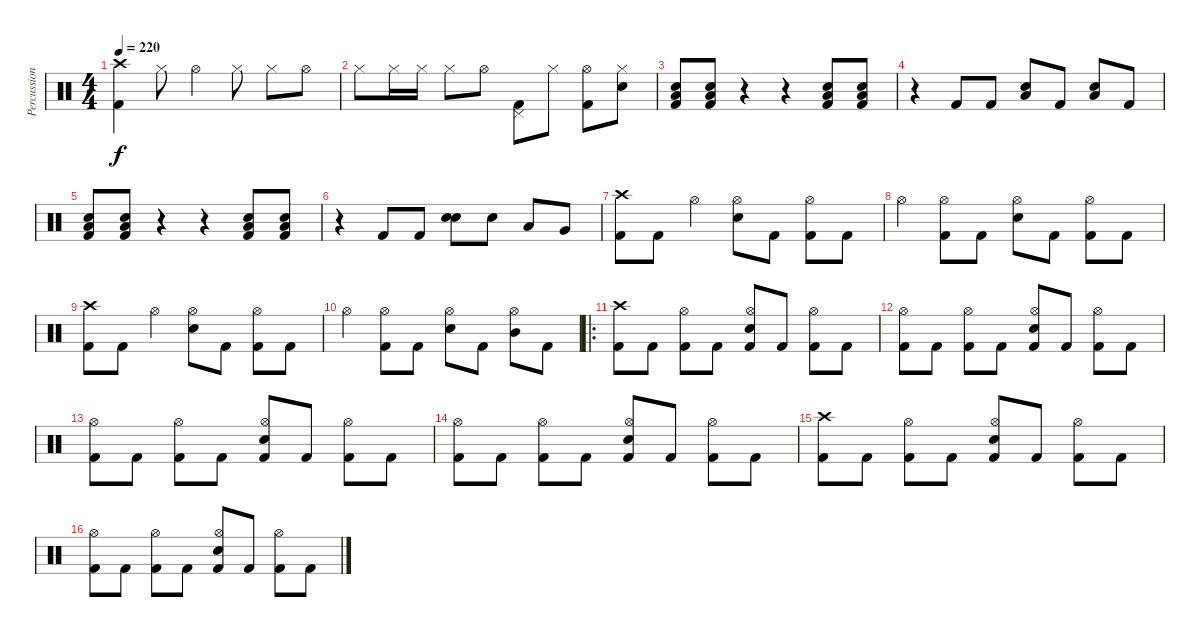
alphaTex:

\track ("Percussions" "Percussion") {instrument percussion}
\staff {score}
\articulation defaults
\ts (4 4)
\tempo 220
\clef neutral
\ks c
("Crash high (hit)" "Kick (hit) 2").4{dy f} "Hi-Hat (closed)".8 "Hi-Hat (open)".4 "Hi-Hat (closed)".8 "Hi-Hat (closed)".8 "Hi-Hat (open)".8 |
"Hi-Hat (closed)".8 "Hi-Hat (closed)".16 "Hi-Hat (closed)".16 "Hi-Hat (closed)".8 "Hi-Hat (open)".8 ("Pedal Hi-Hat (hit)" "Kick (hit) 2").8 "Hi-Hat (closed)".8 ("Hi-Hat (open)" "Kick (hit) 2").8 ("Hi-Hat (closed)" "Snare (hit) 2").8 |
("Low Floor Tom (hit)" "Snare (hit) 2" "Kick (hit) 2").8 ("Low Floor Tom (hit)" "Snare (hit) 2" "Kick (hit) 2").8 r.4 r.4 ("Low Floor Tom (hit)" "Snare (hit) 2" "Kick (hit) 2").8 ("Low Floor Tom (hit)" "Snare (hit) 2" "Kick (hit) 2").8 |
r.4 "Kick (hit) 2".8 "Kick (hit) 2".8 ("Low Floor Tom (hit)" "Snare (hit) 2").8 "Kick (hit) 2".8 ("Low Floor Tom (hit)" "Snare (hit) 2").8 "Kick (hit) 2".8 |
("Low Floor Tom (hit)" "Snare (hit) 2" "Kick (hit) 2").8 ("Low Floor Tom (hit)" "Snare (hit) 2" "Kick (hit) 2").8 r.4 r.4 ("Low Floor Tom (hit)" "Snare (hit) 2" "Kick (hit) 2").8 ("Low Floor Tom (hit)" "Snare (hit) 2" "Kick (hit) 2").8 |
r.4 "Kick (hit) 2".8 "Kick (hit) 2".8 ("Snare (hit) 2" "Snare (hit) 2").8{bd 120} "Snare (hit) 2".8 "Low Tom (hit)".8 "Very Low Tom (hit)".8 |
("Crash high (hit)" "Kick (hit) 2").8 "Kick (hit) 2".8 "Hi-Hat (open)".4 ("Hi-Hat (open)" "Snare (hit) 2").8 "Kick (hit) 2".8 ("Hi-Hat (open)" "Kick (hit) 2").8 "Kick (hit) 2".8 |
"Hi-Hat (open)".4 ("Hi-Hat (open)" "Kick (hit) 2").8 "Kick (hit) 2".8 ("Hi-Hat (open)" "Snare (hit) 2").8 "Kick (hit) 2".8 ("Hi-Hat (open)" "Kick (hit) 2").8 "Kick (hit) 2".8 |
("Crash high (hit)" "Kick (hit) 2").8 "Kick (hit) 2".8 "Hi-Hat (open)".4 ("Hi-Hat (open)" "Snare (hit) 2").8 "Kick (hit) 2".8 ("Hi-Hat (open)" "Kick (hit) 2").8 "Kick (hit) 2".8 |
"Hi-Hat (open)".4 ("Hi-Hat (open)" "Kick (hit) 2").8 "Kick (hit) 2".8 ("Hi-Hat (open)" "Snare (hit) 2").8 "Kick (hit) 2".8 ("Hi-Hat (open)" "Mid Tom (hit)").8 "Kick (hit) 2".8 |
\ro
("Crash high (hit)" "Kick (hit) 2").8 "Kick (hit) 2".8 ("Hi-Hat (open)" "Kick (hit) 2").8 "Kick (hit) 2".8 ("Hi-Hat (open)" "Snare (hit) 2" "Kick (hit) 2").8 "Kick (hit) 2".8 ("Hi-Hat (open)" "Kick (hit) 2").8 "Kick (hit) 2".8 |
("Hi-Hat (open)" "Kick (hit) 2").8 "Kick (hit) 2".8 ("Hi-Hat (open)" "Kick (hit) 2").8 "Kick (hit) 2".8 ("Hi-Hat (open)" "Snare (hit) 2" "Kick (hit) 2").8 "Kick (hit) 2".8 ("Hi-Hat (open)" "Kick (hit) 2").8 "Kick (hit) 2".8 |
("Hi-Hat (open)" "Kick (hit) 2").8 "Kick (hit) 2".8 ("Hi-Hat (open)" "Kick (hit) 2").8 "Kick (hit) 2".8 ("Hi-Hat (open)" "Snare (hit) 2" "Kick (hit) 2").8 "Kick (hit) 2".8 ("Hi-Hat (open)" "Kick (hit) 2").8 "Kick (hit) 2".8 |
("Hi-Hat (open)" "Kick (hit) 2").8 "Kick (hit) 2".8 ("Hi-Hat (open)" "Kick (hit) 2").8 "Kick (hit) 2".8 ("Hi-Hat (open)" "Snare (hit) 2" "Kick (hit) 2").8 "Kick (hit) 2".8 ("Hi-Hat (open)" "Kick (hit) 2").8 "Kick (hit) 2".8 |
("Crash high (hit)" "Kick (hit) 2").8 "Kick (hit) 2".8 ("Hi-Hat (open)" "Kick (hit) 2").8 "Kick (hit) 2".8 ("Hi-Hat (open)" "Snare (hit) 2" "Kick (hit) 2").8 "Kick (hit) 2".8 ("Hi-Hat (open)" "Kick (hit) 2").8 "Kick (hit) 2".8 |
("Hi-Hat (open)" "Kick (hit) 2").8 "Kick (hit) 2".8 ("Hi-Hat (open)" "Kick (hit) 2").8 "Kick (hit) 2".8 ("Hi-Hat (open)" "Snare (hit) 2" "Kick (hit) 2").8 "Kick (hit) 2".8 ("Hi-Hat (open)" "Kick (hit) 2").8 "Kick (hit) 2".8
